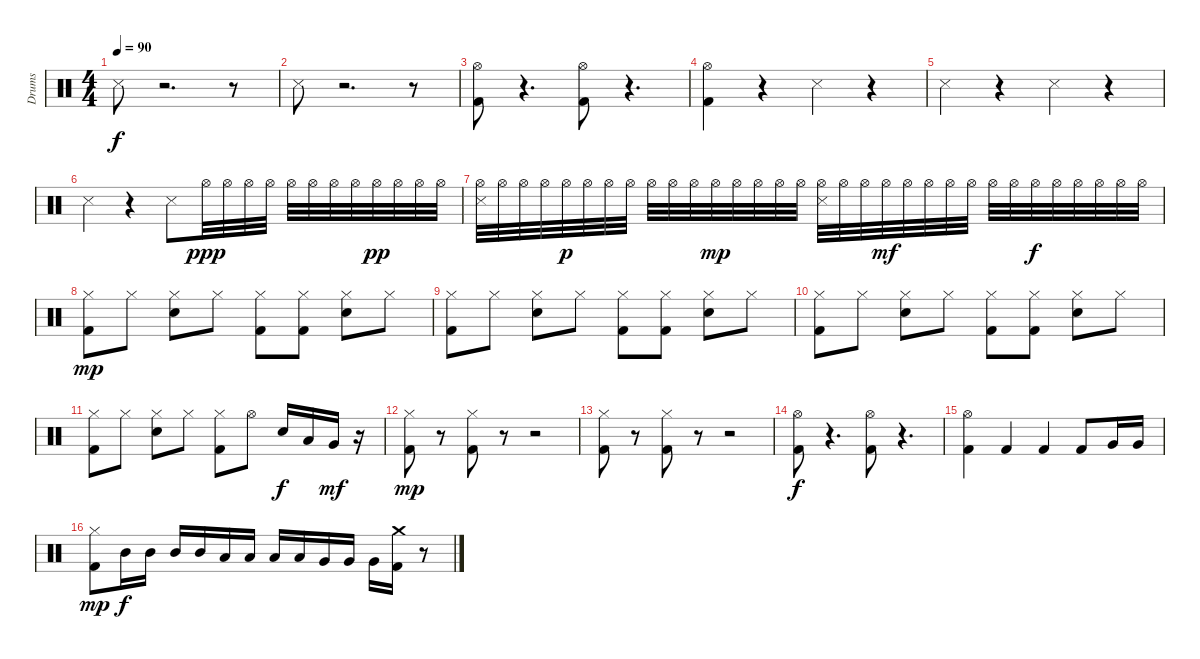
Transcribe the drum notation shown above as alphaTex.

\track ("Drums" "Drums") {instrument percussion}
\staff {score}
\articulation defaults
\ts (4 4)
\tempo 90
\clef neutral
\ks c "Snare (side stick) 3".8{dy f}
r.2{d} r.8 |
"Snare (side stick) 3".8 r.2{d} r.8 |
("Kick (hit) 2" "Hi-Hat (open)").8 r.4{d} ("Kick (hit) 2" "Hi-Hat (open)").8 r.4{d} |
("Kick (hit) 2" "Hi-Hat (open)").4 r.4 "Snare (side stick) 3".4 r.4 |
"Snare (side stick) 3".4 r.4 "Snare (side stick) 3".4 r.4 |
"Snare (side stick) 3".4 r.4 "Snare (side stick) 3".8 "Hi-Hat (open)".32{dy ppp} "Hi-Hat (open)".32 "Hi-Hat (open)".32 "Hi-Hat (open)".32 "Hi-Hat (open)".32 "Hi-Hat (open)".32 "Hi-Hat (open)".32 "Hi-Hat (open)".32 "Hi-Hat (open)".32{dy pp} "Hi-Hat (open)".32 "Hi-Hat (open)".32 "Hi-Hat (open)".32 |
("Hi-Hat (open)" "Snare (side stick) 3").32 "Hi-Hat (open)".32 "Hi-Hat (open)".32 "Hi-Hat (open)".32 "Hi-Hat (open)".32{dy p} "Hi-Hat (open)".32 "Hi-Hat (open)".32 "Hi-Hat (open)".32 "Hi-Hat (open)".32 "Hi-Hat (open)".32 "Hi-Hat (open)".32 "Hi-Hat (open)".32{dy mp} "Hi-Hat (open)".32 "Hi-Hat (open)".32 "Hi-Hat (open)".32 "Hi-Hat (open)".32 ("Hi-Hat (open)" "Snare (side stick) 3").32 "Hi-Hat (open)".32 "Hi-Hat (open)".32 "Hi-Hat (open)".32{dy mf} "Hi-Hat (open)".32 "Hi-Hat (open)".32 "Hi-Hat (open)".32 "Hi-Hat (open)".32 "Hi-Hat (open)".32 "Hi-Hat (open)".32 "Hi-Hat (open)".32{dy f} "Hi-Hat (open)".32 "Hi-Hat (open)".32 "Hi-Hat (open)".32 "Hi-Hat (open)".32 "Hi-Hat (open)".32 |
("Kick (hit) 2" "Hi-Hat (closed)").8{dy mp} "Hi-Hat (closed)".8 ("Electric Snare (hit)" "Hi-Hat (closed)").8 "Hi-Hat (closed)".8 ("Kick (hit) 2" "Hi-Hat (closed)").8 ("Kick (hit) 2" "Hi-Hat (closed)").8 ("Electric Snare (hit)" "Hi-Hat (closed)").8 "Hi-Hat (closed)".8 |
("Kick (hit) 2" "Hi-Hat (closed)").8 "Hi-Hat (closed)".8 ("Electric Snare (hit)" "Hi-Hat (closed)").8 "Hi-Hat (closed)".8 ("Kick (hit) 2" "Hi-Hat (closed)").8 ("Kick (hit) 2" "Hi-Hat (closed)").8 ("Electric Snare (hit)" "Hi-Hat (closed)").8 "Hi-Hat (closed)".8 |
("Kick (hit) 2" "Hi-Hat (closed)").8 "Hi-Hat (closed)".8 ("Electric Snare (hit)" "Hi-Hat (closed)").8 "Hi-Hat (closed)".8 ("Kick (hit) 2" "Hi-Hat (closed)").8 ("Kick (hit) 2" "Hi-Hat (closed)").8 ("Electric Snare (hit)" "Hi-Hat (closed)").8 "Hi-Hat (closed)".8 |
("Kick (hit) 2" "Hi-Hat (closed)").8 "Hi-Hat (closed)".8 ("Electric Snare (hit)" "Hi-Hat (closed)").8 "Hi-Hat (closed)".8 ("Kick (hit) 2" "Hi-Hat (closed)").8 "Hi-Hat (open)".8 "Electric Snare (hit)".16{dy f} "Low Tom (hit)".16 "Very Low Tom (hit)".16{dy mf} r.16 |
("Kick (hit) 2" "Hi-Hat (closed)").8{dy mp} r.8 ("Kick (hit) 2" "Hi-Hat (closed)").8 r.8 r.2 |
("Kick (hit) 2" "Hi-Hat (closed)").8 r.8 ("Kick (hit) 2" "Hi-Hat (closed)").8 r.8 r.2 |
("Hi-Hat (open)" "Kick (hit) 2").8{dy f} r.4{d} ("Hi-Hat (open)" "Kick (hit) 2").8 r.4{d} |
("Kick (hit) 2" "Hi-Hat (open)").4 "Kick (hit) 2".4 "Kick (hit) 2".4 "Kick (hit) 2".8 "Very Low Tom (hit)".16 "Very Low Tom (hit)".16 |
("Kick (hit) 2" "Hi-Hat (closed)").8{dy mp} "Mid Tom (hit)".16{dy f} "Mid Tom (hit)".16 "Mid Tom (hit)".16 "Mid Tom (hit)".16 "Low Tom (hit)".16 "Low Tom (hit)".16 "Low Tom (hit)".16 "Low Tom (hit)".16 "Very Low Tom (hit)".16 "Very Low Tom (hit)".16 "Very Low Tom (hit)".16 ("Crash medium (hit)" "Kick (hit) 2").16 r.8
